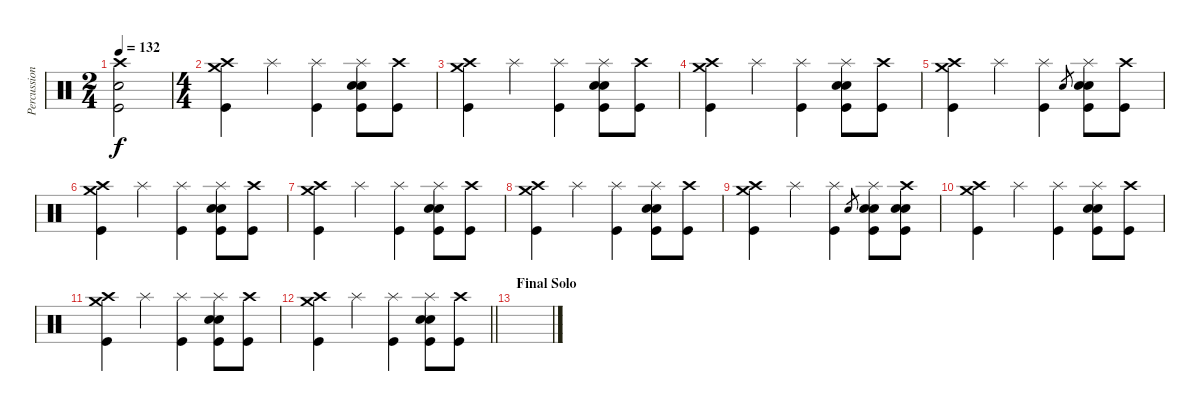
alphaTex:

\track ("Percussion" "Percussion") {instrument percussion}
\staff {score}
\articulation defaults
\ts (2 4)
\tempo 132
\clef neutral
\ks c
("Crash high (hit)" "Electric Snare (hit)" "Kick (hit)").2{dy f} |
\ts (4 4)
("Crash high (hit)" "Crash medium (hit)" "Kick (hit)").4 "Splash (hit)".4 ("Splash (hit)" "Kick (hit)").4 ("Splash (hit)" "Electric Snare (hit)" "Snare (hit) 2" "Kick (hit)").8 ("Crash high (hit)" "Kick (hit)").8 |
("Crash high (hit)" "Crash medium (hit)" "Kick (hit)").4 "Splash (hit)".4 ("Splash (hit)" "Kick (hit)").4 ("Splash (hit)" "Electric Snare (hit)" "Snare (hit) 2" "Kick (hit)").8 ("Crash high (hit)" "Kick (hit)").8 |
("Crash high (hit)" "Crash medium (hit)" "Kick (hit)").4 "Splash (hit)".4 ("Splash (hit)" "Kick (hit)").4 ("Splash (hit)" "Electric Snare (hit)" "Snare (hit) 2" "Kick (hit)").8 ("Crash high (hit)" "Kick (hit)").8 |
("Crash high (hit)" "Crash medium (hit)" "Kick (hit)").4 "Splash (hit)".4 ("Splash (hit)" "Kick (hit)").4 "Electric Snare (hit)".8{gr} ("Splash (hit)" "Electric Snare (hit)" "Snare (hit) 2" "Kick (hit)").8 ("Crash high (hit)" "Kick (hit)").8 |
("Crash high (hit)" "Crash medium (hit)" "Kick (hit)").4 "Splash (hit)".4 ("Splash (hit)" "Kick (hit)").4 ("Splash (hit)" "Electric Snare (hit)" "Snare (hit) 2" "Kick (hit)").8 ("Crash high (hit)" "Kick (hit)").8 |
("Crash high (hit)" "Crash medium (hit)" "Kick (hit)").4 "Splash (hit)".4 ("Splash (hit)" "Kick (hit)").4 ("Splash (hit)" "Electric Snare (hit)" "Snare (hit) 2" "Kick (hit)").8 ("Crash high (hit)" "Kick (hit)").8 |
("Crash high (hit)" "Crash medium (hit)" "Kick (hit)").4 "Splash (hit)".4 ("Splash (hit)" "Kick (hit)").4 ("Splash (hit)" "Electric Snare (hit)" "Snare (hit) 2" "Kick (hit)").8 ("Crash high (hit)" "Kick (hit)").8 |
("Crash high (hit)" "Crash medium (hit)" "Kick (hit)").4 "Splash (hit)".4 ("Splash (hit)" "Kick (hit)").4 "Electric Snare (hit)".8{gr} ("Splash (hit)" "Electric Snare (hit)" "Snare (hit) 2" "Kick (hit)").8 ("Crash high (hit)" "Electric Snare (hit)" "Snare (hit) 2" "Kick (hit)").8 |
("Crash high (hit)" "Crash medium (hit)" "Kick (hit)").4 "Splash (hit)".4 ("Splash (hit)" "Kick (hit)").4 ("Splash (hit)" "Electric Snare (hit)" "Snare (hit) 2" "Kick (hit)").8 ("Crash high (hit)" "Kick (hit)").8 |
("Crash high (hit)" "Crash medium (hit)" "Kick (hit)").4 "Splash (hit)".4 ("Splash (hit)" "Kick (hit)").4 ("Splash (hit)" "Electric Snare (hit)" "Snare (hit) 2" "Kick (hit)").8 ("Crash high (hit)" "Kick (hit)").8 |
\barLineRight lightlight
("Crash high (hit)" "Crash medium (hit)" "Kick (hit)").4 "Splash (hit)".4 ("Splash (hit)" "Kick (hit)").4 ("Splash (hit)" "Electric Snare (hit)" "Snare (hit) 2" "Kick (hit)").8 ("Crash high (hit)" "Kick (hit)").8 |
\section ("" "Final Solo")
